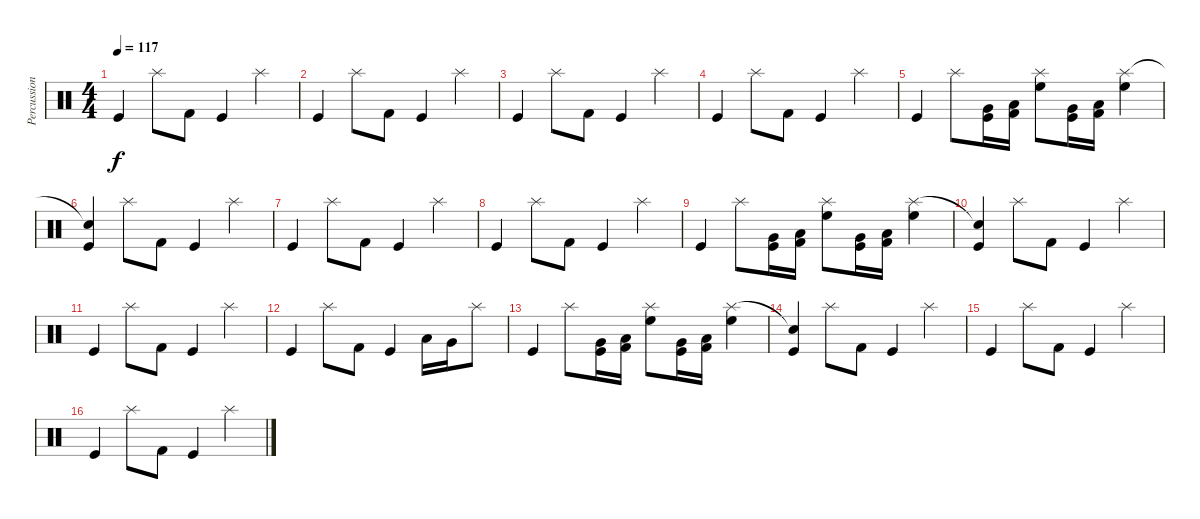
\track ("Percussions" "Percussion") {instrument percussion}
\staff {score}
\articulation defaults
\ts (4 4)
\tempo 117
\clef neutral
\ks c "Kick (hit)".4{dy f} "Splash (hit)".8 "Kick (hit) 2".8 "Kick (hit)".4 "Splash (hit)".4
|
"Kick (hit)".4 "Splash (hit)".8 "Kick (hit) 2".8 "Kick (hit)".4 "Splash (hit)".4 |
"Kick (hit)".4 "Splash (hit)".8 "Kick (hit) 2".8 "Kick (hit)".4 "Splash (hit)".4 |
"Kick (hit)".4 "Splash (hit)".8 "Kick (hit) 2".8 "Kick (hit)".4 "Splash (hit)".4 |
"Kick (hit)".4 "Splash (hit)".8 ("Very Low Tom (hit)" "Kick (hit)").16 ("Low Tom (hit)" "Kick (hit) 2").16 ("Splash (hit)" "High Floor Tom (hit)").8 ("Very Low Tom (hit)" "Kick (hit)").16 ("Low Tom (hit)" "Kick (hit) 2").16 ("Splash (hit)" "High Floor Tom (hit)").4 |
("Snare (hit)"{t} "Kick (hit)").4 "Splash (hit)".8 "Kick (hit) 2".8 "Kick (hit)".4 "Splash (hit)".4 |
"Kick (hit)".4 "Splash (hit)".8 "Kick (hit) 2".8 "Kick (hit)".4 "Splash (hit)".4 |
"Kick (hit)".4 "Splash (hit)".8 "Kick (hit) 2".8 "Kick (hit)".4 "Splash (hit)".4 |
"Kick (hit)".4 "Splash (hit)".8 ("Very Low Tom (hit)" "Kick (hit)").16 ("Low Tom (hit)" "Kick (hit) 2").16 ("Splash (hit)" "High Floor Tom (hit)").8 ("Very Low Tom (hit)" "Kick (hit)").16 ("Low Tom (hit)" "Kick (hit) 2").16 ("Splash (hit)" "High Floor Tom (hit)").4 |
("Snare (hit)"{t} "Kick (hit)").4 "Splash (hit)".8 "Kick (hit) 2".8 "Kick (hit)".4 "Splash (hit)".4 |
"Kick (hit)".4 "Splash (hit)".8 "Kick (hit) 2".8 "Kick (hit)".4 "Splash (hit)".4 |
"Kick (hit)".4 "Splash (hit)".8 "Kick (hit) 2".8 "Kick (hit)".4 "Low Tom (hit)".16 "Very Low Tom (hit)".16 "Splash (hit)".8 |
"Kick (hit)".4 "Splash (hit)".8 ("Very Low Tom (hit)" "Kick (hit)").16 ("Low Tom (hit)" "Kick (hit) 2").16 ("Splash (hit)" "High Floor Tom (hit)").8 ("Very Low Tom (hit)" "Kick (hit)").16 ("Low Tom (hit)" "Kick (hit) 2").16 ("Splash (hit)" "High Floor Tom (hit)").4 |
("Snare (hit)"{t} "Kick (hit)").4 "Splash (hit)".8 "Kick (hit) 2".8 "Kick (hit)".4 "Splash (hit)".4 |
"Kick (hit)".4 "Splash (hit)".8 "Kick (hit) 2".8 "Kick (hit)".4 "Splash (hit)".4 |
"Kick (hit)".4 "Splash (hit)".8 "Kick (hit) 2".8 "Kick (hit)".4 "Splash (hit)".4
